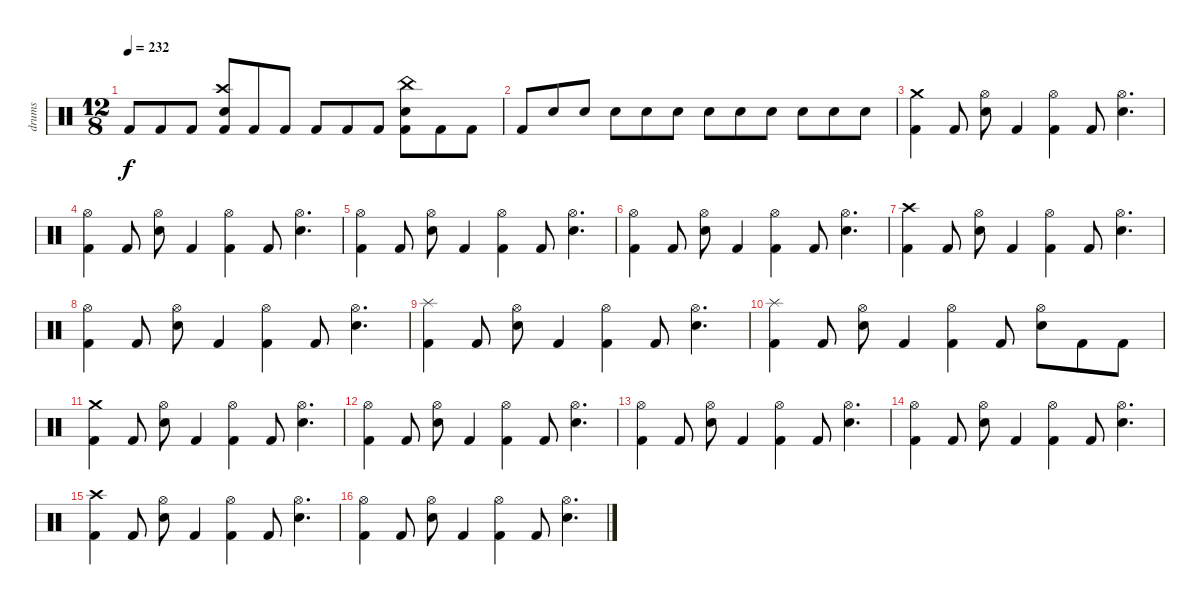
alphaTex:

\track ("drums" "drums") {instrument percussion}
\staff {score}
\articulation defaults
\ts (12 8)
\tempo 232
\clef neutral
\ks c "Kick (hit) 2".8{dy f} "Kick (hit) 2".8 "Kick (hit) 2".8
("Kick (hit) 2" "Crash high (hit)" "Electric Snare (hit)").8 "Kick (hit) 2".8 "Kick (hit) 2".8 "Kick (hit) 2".8 "Kick (hit) 2".8 "Kick (hit) 2".8 ("Kick (hit) 2" "China (hit)" "Electric Snare (hit)").8 "Kick (hit) 2".8 "Kick (hit) 2".8 |
"Kick (hit) 2".8 "Electric Snare (hit)".8 "Electric Snare (hit)".8 "Electric Snare (hit)".8 "Electric Snare (hit)".8 "Electric Snare (hit)".8 "Electric Snare (hit)".8 "Electric Snare (hit)".8 "Electric Snare (hit)".8 "Electric Snare (hit)".8 "Electric Snare (hit)".8 "Electric Snare (hit)".8 |
("Kick (hit) 2" "Crash medium (hit)").4 "Kick (hit) 2".8 ("Electric Snare (hit)" "Hi-Hat (open)").8 "Kick (hit) 2".4 ("Kick (hit) 2" "Hi-Hat (open)").4 "Kick (hit) 2".8 ("Electric Snare (hit)" "Hi-Hat (open)").4{d} |
("Hi-Hat (open)" "Kick (hit) 2").4 "Kick (hit) 2".8 ("Hi-Hat (open)" "Electric Snare (hit)").8 "Kick (hit) 2".4 ("Hi-Hat (open)" "Kick (hit) 2").4 "Kick (hit) 2".8 ("Hi-Hat (open)" "Electric Snare (hit)").4{d} |
("Hi-Hat (open)" "Kick (hit) 2").4 "Kick (hit) 2".8 ("Hi-Hat (open)" "Electric Snare (hit)").8 "Kick (hit) 2".4 ("Hi-Hat (open)" "Kick (hit) 2").4 "Kick (hit) 2".8 ("Hi-Hat (open)" "Electric Snare (hit)").4{d} |
("Hi-Hat (open)" "Kick (hit) 2").4 "Kick (hit) 2".8 ("Hi-Hat (open)" "Electric Snare (hit)").8 "Kick (hit) 2".4 ("Hi-Hat (open)" "Kick (hit) 2").4 "Kick (hit) 2".8 ("Hi-Hat (open)" "Electric Snare (hit)").4{d} |
("Kick (hit) 2" "Crash high (hit)").4 "Kick (hit) 2".8 ("Electric Snare (hit)" "Hi-Hat (open)").8 "Kick (hit) 2".4 ("Kick (hit) 2" "Hi-Hat (open)").4 "Kick (hit) 2".8 ("Electric Snare (hit)" "Hi-Hat (open)").4{d} |
("Hi-Hat (open)" "Kick (hit) 2").4 "Kick (hit) 2".8 ("Hi-Hat (open)" "Electric Snare (hit)").8 "Kick (hit) 2".4 ("Hi-Hat (open)" "Kick (hit) 2").4 "Kick (hit) 2".8 ("Hi-Hat (open)" "Electric Snare (hit)").4{d} |
("Splash (hit)" "Kick (hit) 2").4 "Kick (hit) 2".8 ("Hi-Hat (open)" "Electric Snare (hit)").8 "Kick (hit) 2".4 ("Hi-Hat (open)" "Kick (hit) 2").4 "Kick (hit) 2".8 ("Hi-Hat (open)" "Electric Snare (hit)").4{d} |
("Splash (hit)" "Kick (hit) 2").4 "Kick (hit) 2".8 ("Hi-Hat (open)" "Electric Snare (hit)").8 "Kick (hit) 2".4 ("Hi-Hat (open)" "Kick (hit) 2").4 "Kick (hit) 2".8 ("Electric Snare (hit)" "Hi-Hat (open)").8 "Kick (hit) 2".8 "Kick (hit) 2".8 |
("Kick (hit) 2" "Crash medium (hit)").4 "Kick (hit) 2".8 ("Electric Snare (hit)" "Hi-Hat (open)").8 "Kick (hit) 2".4 ("Kick (hit) 2" "Hi-Hat (open)").4 "Kick (hit) 2".8 ("Electric Snare (hit)" "Hi-Hat (open)").4{d} |
("Hi-Hat (open)" "Kick (hit) 2").4 "Kick (hit) 2".8 ("Hi-Hat (open)" "Electric Snare (hit)").8 "Kick (hit) 2".4 ("Hi-Hat (open)" "Kick (hit) 2").4 "Kick (hit) 2".8 ("Hi-Hat (open)" "Electric Snare (hit)").4{d} |
("Hi-Hat (open)" "Kick (hit) 2").4 "Kick (hit) 2".8 ("Hi-Hat (open)" "Electric Snare (hit)").8 "Kick (hit) 2".4 ("Hi-Hat (open)" "Kick (hit) 2").4 "Kick (hit) 2".8 ("Hi-Hat (open)" "Electric Snare (hit)").4{d} |
("Hi-Hat (open)" "Kick (hit) 2").4 "Kick (hit) 2".8 ("Hi-Hat (open)" "Electric Snare (hit)").8 "Kick (hit) 2".4 ("Hi-Hat (open)" "Kick (hit) 2").4 "Kick (hit) 2".8 ("Hi-Hat (open)" "Electric Snare (hit)").4{d} |
("Kick (hit) 2" "Crash high (hit)").4 "Kick (hit) 2".8 ("Electric Snare (hit)" "Hi-Hat (open)").8 "Kick (hit) 2".4 ("Kick (hit) 2" "Hi-Hat (open)").4 "Kick (hit) 2".8 ("Electric Snare (hit)" "Hi-Hat (open)").4{d} |
("Hi-Hat (open)" "Kick (hit) 2").4 "Kick (hit) 2".8 ("Hi-Hat (open)" "Electric Snare (hit)").8 "Kick (hit) 2".4 ("Hi-Hat (open)" "Kick (hit) 2").4 "Kick (hit) 2".8 ("Hi-Hat (open)" "Electric Snare (hit)").4{d}
